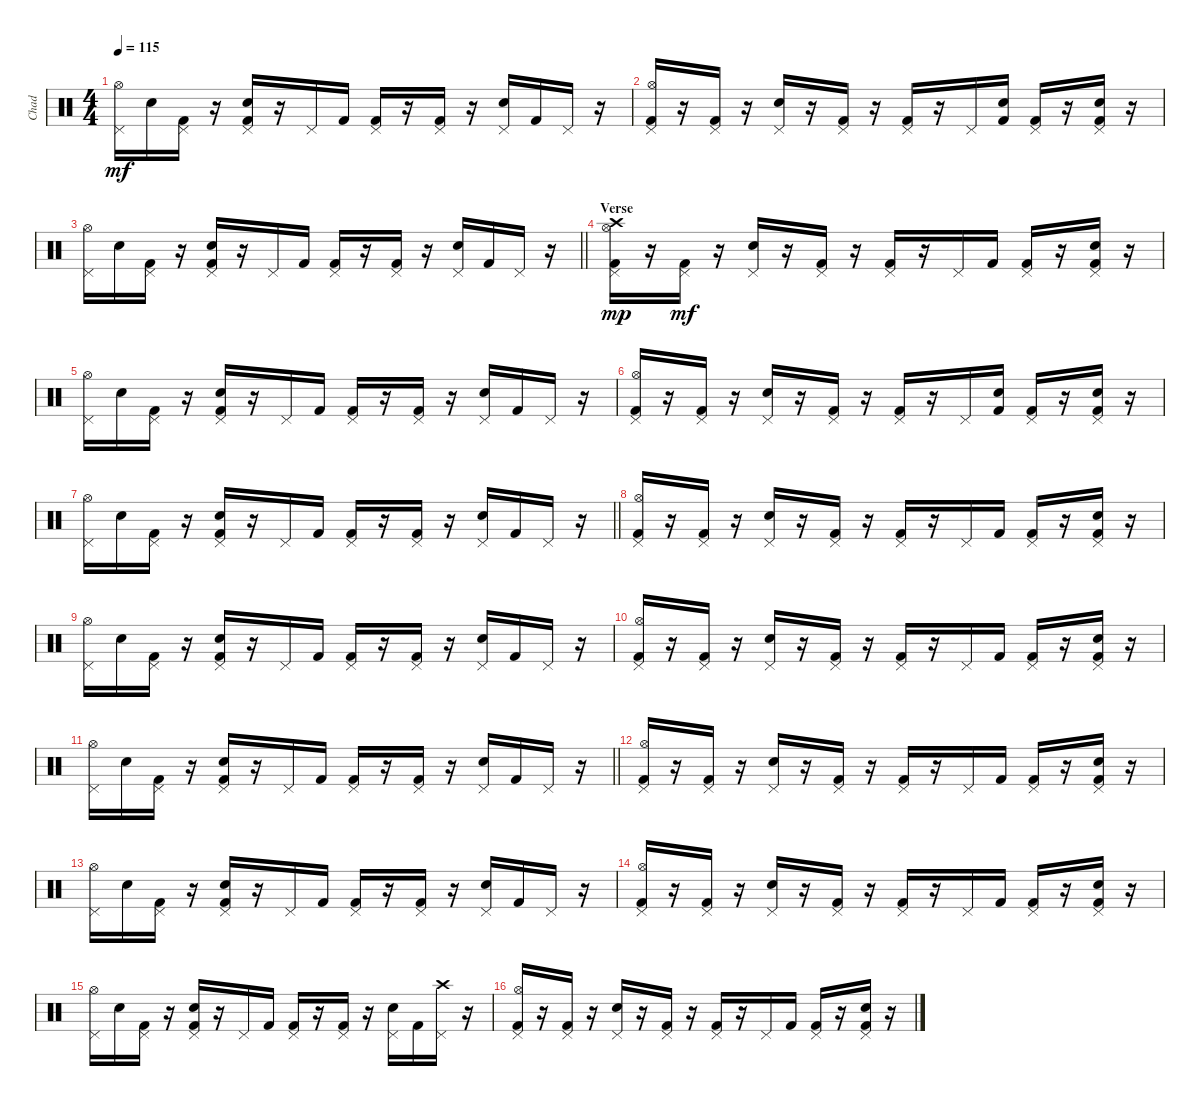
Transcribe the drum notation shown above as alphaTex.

\track ("Chad" "Chad") {instrument percussion}
\staff {score}
\articulation defaults
\ts (4 4)
\tempo 115
\clef neutral
\ks c
("Pedal Hi-Hat (hit)" "Hi-Hat (open)").16{dy mf} "Snare (hit) 2".16 ("Kick (hit) 2" "Pedal Hi-Hat (hit)").16 r.16 ("Kick (hit) 2" "Snare (hit) 2" "Pedal Hi-Hat (hit)").16 r.16 "Pedal Hi-Hat (hit)".16 "Kick (hit) 2".16 ("Kick (hit) 2" "Pedal Hi-Hat (hit)").16 r.16 ("Kick (hit) 2" "Pedal Hi-Hat (hit)").16 r.16 ("Snare (hit) 2" "Pedal Hi-Hat (hit)").16 "Kick (hit) 2".16 "Pedal Hi-Hat (hit)".16 r.16 |
("Kick (hit) 2" "Pedal Hi-Hat (hit)" "Hi-Hat (open)").16 r.16 ("Kick (hit) 2" "Pedal Hi-Hat (hit)").16 r.16 ("Snare (hit) 2" "Pedal Hi-Hat (hit)").16 r.16 ("Kick (hit) 2" "Pedal Hi-Hat (hit)").16 r.16 ("Kick (hit) 2" "Pedal Hi-Hat (hit)").16 r.16 "Pedal Hi-Hat (hit)".16 ("Kick (hit) 2" "Snare (hit) 2").16 ("Kick (hit) 2" "Pedal Hi-Hat (hit)").16 r.16 ("Kick (hit) 2" "Snare (hit) 2" "Pedal Hi-Hat (hit)").16 r.16 |
\barLineRight lightlight
("Pedal Hi-Hat (hit)" "Hi-Hat (open)").16 "Snare (hit) 2".16 ("Kick (hit) 2" "Pedal Hi-Hat (hit)").16 r.16 ("Kick (hit) 2" "Snare (hit) 2" "Pedal Hi-Hat (hit)").16 r.16 "Pedal Hi-Hat (hit)".16 "Kick (hit) 2".16 ("Kick (hit) 2" "Pedal Hi-Hat (hit)").16 r.16 ("Kick (hit) 2" "Pedal Hi-Hat (hit)").16 r.16 ("Snare (hit) 2" "Pedal Hi-Hat (hit)").16 "Kick (hit) 2".16 "Pedal Hi-Hat (hit)".16 r.16 |
\section ("" "Verse")
("Kick (hit) 2" "Pedal Hi-Hat (hit)" "Hi-Hat (open)" "Crash high (hit)").16{dy mp} r.16 ("Kick (hit) 2" "Pedal Hi-Hat (hit)").16{dy mf} r.16 ("Snare (hit) 2" "Pedal Hi-Hat (hit)").16 r.16 ("Kick (hit) 2" "Pedal Hi-Hat (hit)").16 r.16 ("Kick (hit) 2" "Pedal Hi-Hat (hit)").16 r.16 "Pedal Hi-Hat (hit)".16 "Kick (hit) 2".16 ("Kick (hit) 2" "Pedal Hi-Hat (hit)").16 r.16 ("Kick (hit) 2" "Snare (hit) 2" "Pedal Hi-Hat (hit)").16 r.16 |
("Pedal Hi-Hat (hit)" "Hi-Hat (open)").16 "Snare (hit) 2".16 ("Kick (hit) 2" "Pedal Hi-Hat (hit)").16 r.16 ("Kick (hit) 2" "Snare (hit) 2" "Pedal Hi-Hat (hit)").16 r.16 "Pedal Hi-Hat (hit)".16 "Kick (hit) 2".16 ("Kick (hit) 2" "Pedal Hi-Hat (hit)").16 r.16 ("Kick (hit) 2" "Pedal Hi-Hat (hit)").16 r.16 ("Snare (hit) 2" "Pedal Hi-Hat (hit)").16 "Kick (hit) 2".16 "Pedal Hi-Hat (hit)".16 r.16 |
("Kick (hit) 2" "Pedal Hi-Hat (hit)" "Hi-Hat (open)").16 r.16 ("Kick (hit) 2" "Pedal Hi-Hat (hit)").16 r.16 ("Snare (hit) 2" "Pedal Hi-Hat (hit)").16 r.16 ("Kick (hit) 2" "Pedal Hi-Hat (hit)").16 r.16 ("Kick (hit) 2" "Pedal Hi-Hat (hit)").16 r.16 "Pedal Hi-Hat (hit)".16 ("Kick (hit) 2" "Snare (hit) 2").16 ("Kick (hit) 2" "Pedal Hi-Hat (hit)").16 r.16 ("Kick (hit) 2" "Snare (hit) 2" "Pedal Hi-Hat (hit)").16 r.16 |
\barLineRight lightlight
("Pedal Hi-Hat (hit)" "Hi-Hat (open)").16 "Snare (hit) 2".16 ("Kick (hit) 2" "Pedal Hi-Hat (hit)").16 r.16 ("Kick (hit) 2" "Snare (hit) 2" "Pedal Hi-Hat (hit)").16 r.16 "Pedal Hi-Hat (hit)".16 "Kick (hit) 2".16 ("Kick (hit) 2" "Pedal Hi-Hat (hit)").16 r.16 ("Kick (hit) 2" "Pedal Hi-Hat (hit)").16 r.16 ("Snare (hit) 2" "Pedal Hi-Hat (hit)").16 "Kick (hit) 2".16 "Pedal Hi-Hat (hit)".16 r.16 |
("Kick (hit) 2" "Pedal Hi-Hat (hit)" "Hi-Hat (open)").16 r.16 ("Kick (hit) 2" "Pedal Hi-Hat (hit)").16 r.16 ("Snare (hit) 2" "Pedal Hi-Hat (hit)").16 r.16 ("Kick (hit) 2" "Pedal Hi-Hat (hit)").16 r.16 ("Kick (hit) 2" "Pedal Hi-Hat (hit)").16 r.16 "Pedal Hi-Hat (hit)".16 "Kick (hit) 2".16 ("Kick (hit) 2" "Pedal Hi-Hat (hit)").16 r.16 ("Kick (hit) 2" "Snare (hit) 2" "Pedal Hi-Hat (hit)").16 r.16 |
("Pedal Hi-Hat (hit)" "Hi-Hat (open)").16 "Snare (hit) 2".16 ("Kick (hit) 2" "Pedal Hi-Hat (hit)").16 r.16 ("Kick (hit) 2" "Snare (hit) 2" "Pedal Hi-Hat (hit)").16 r.16 "Pedal Hi-Hat (hit)".16 "Kick (hit) 2".16 ("Kick (hit) 2" "Pedal Hi-Hat (hit)").16 r.16 ("Kick (hit) 2" "Pedal Hi-Hat (hit)").16 r.16 ("Snare (hit) 2" "Pedal Hi-Hat (hit)").16 "Kick (hit) 2".16 "Pedal Hi-Hat (hit)".16 r.16 |
("Kick (hit) 2" "Pedal Hi-Hat (hit)" "Hi-Hat (open)").16 r.16 ("Kick (hit) 2" "Pedal Hi-Hat (hit)").16 r.16 ("Snare (hit) 2" "Pedal Hi-Hat (hit)").16 r.16 ("Kick (hit) 2" "Pedal Hi-Hat (hit)").16 r.16 ("Kick (hit) 2" "Pedal Hi-Hat (hit)").16 r.16 "Pedal Hi-Hat (hit)".16 "Kick (hit) 2".16 ("Kick (hit) 2" "Pedal Hi-Hat (hit)").16 r.16 ("Kick (hit) 2" "Snare (hit) 2" "Pedal Hi-Hat (hit)").16 r.16 |
\barLineRight lightlight
("Pedal Hi-Hat (hit)" "Hi-Hat (open)").16 "Snare (hit) 2".16 ("Kick (hit) 2" "Pedal Hi-Hat (hit)").16 r.16 ("Kick (hit) 2" "Snare (hit) 2" "Pedal Hi-Hat (hit)").16 r.16 "Pedal Hi-Hat (hit)".16 "Kick (hit) 2".16 ("Kick (hit) 2" "Pedal Hi-Hat (hit)").16 r.16 ("Kick (hit) 2" "Pedal Hi-Hat (hit)").16 r.16 ("Snare (hit) 2" "Pedal Hi-Hat (hit)").16 "Kick (hit) 2".16 "Pedal Hi-Hat (hit)".16 r.16 |
("Kick (hit) 2" "Pedal Hi-Hat (hit)" "Hi-Hat (open)").16 r.16 ("Kick (hit) 2" "Pedal Hi-Hat (hit)").16 r.16 ("Snare (hit) 2" "Pedal Hi-Hat (hit)").16 r.16 ("Kick (hit) 2" "Pedal Hi-Hat (hit)").16 r.16 ("Kick (hit) 2" "Pedal Hi-Hat (hit)").16 r.16 "Pedal Hi-Hat (hit)".16 "Kick (hit) 2".16 ("Kick (hit) 2" "Pedal Hi-Hat (hit)").16 r.16 ("Kick (hit) 2" "Snare (hit) 2" "Pedal Hi-Hat (hit)").16 r.16 |
("Pedal Hi-Hat (hit)" "Hi-Hat (open)").16 "Snare (hit) 2".16 ("Kick (hit) 2" "Pedal Hi-Hat (hit)").16 r.16 ("Kick (hit) 2" "Snare (hit) 2" "Pedal Hi-Hat (hit)").16 r.16 "Pedal Hi-Hat (hit)".16 "Kick (hit) 2".16 ("Kick (hit) 2" "Pedal Hi-Hat (hit)").16 r.16 ("Kick (hit) 2" "Pedal Hi-Hat (hit)").16 r.16 ("Snare (hit) 2" "Pedal Hi-Hat (hit)").16 "Kick (hit) 2".16 "Pedal Hi-Hat (hit)".16 r.16 |
("Kick (hit) 2" "Pedal Hi-Hat (hit)" "Hi-Hat (open)").16 r.16 ("Kick (hit) 2" "Pedal Hi-Hat (hit)").16 r.16 ("Snare (hit) 2" "Pedal Hi-Hat (hit)").16 r.16 ("Kick (hit) 2" "Pedal Hi-Hat (hit)").16 r.16 ("Kick (hit) 2" "Pedal Hi-Hat (hit)").16 r.16 "Pedal Hi-Hat (hit)".16 "Kick (hit) 2".16 ("Kick (hit) 2" "Pedal Hi-Hat (hit)").16 r.16 ("Kick (hit) 2" "Snare (hit) 2" "Pedal Hi-Hat (hit)").16 r.16 |
("Pedal Hi-Hat (hit)" "Hi-Hat (open)").16 "Snare (hit) 2".16 ("Kick (hit) 2" "Pedal Hi-Hat (hit)").16 r.16 ("Kick (hit) 2" "Snare (hit) 2" "Pedal Hi-Hat (hit)").16 r.16 "Pedal Hi-Hat (hit)".16 "Kick (hit) 2".16 ("Kick (hit) 2" "Pedal Hi-Hat (hit)").16 r.16 ("Kick (hit) 2" "Pedal Hi-Hat (hit)").16 r.16 ("Snare (hit) 2" "Pedal Hi-Hat (hit)").16 "Kick (hit) 2".16 ("Pedal Hi-Hat (hit)" "Crash high (hit)").16 r.16 |
("Kick (hit) 2" "Pedal Hi-Hat (hit)" "Hi-Hat (open)").16 r.16 ("Kick (hit) 2" "Pedal Hi-Hat (hit)").16 r.16 ("Snare (hit) 2" "Pedal Hi-Hat (hit)").16 r.16 ("Kick (hit) 2" "Pedal Hi-Hat (hit)").16 r.16 ("Kick (hit) 2" "Pedal Hi-Hat (hit)").16 r.16 "Pedal Hi-Hat (hit)".16 "Kick (hit) 2".16 ("Kick (hit) 2" "Pedal Hi-Hat (hit)").16 r.16 ("Kick (hit) 2" "Snare (hit) 2" "Pedal Hi-Hat (hit)").16 r.16
